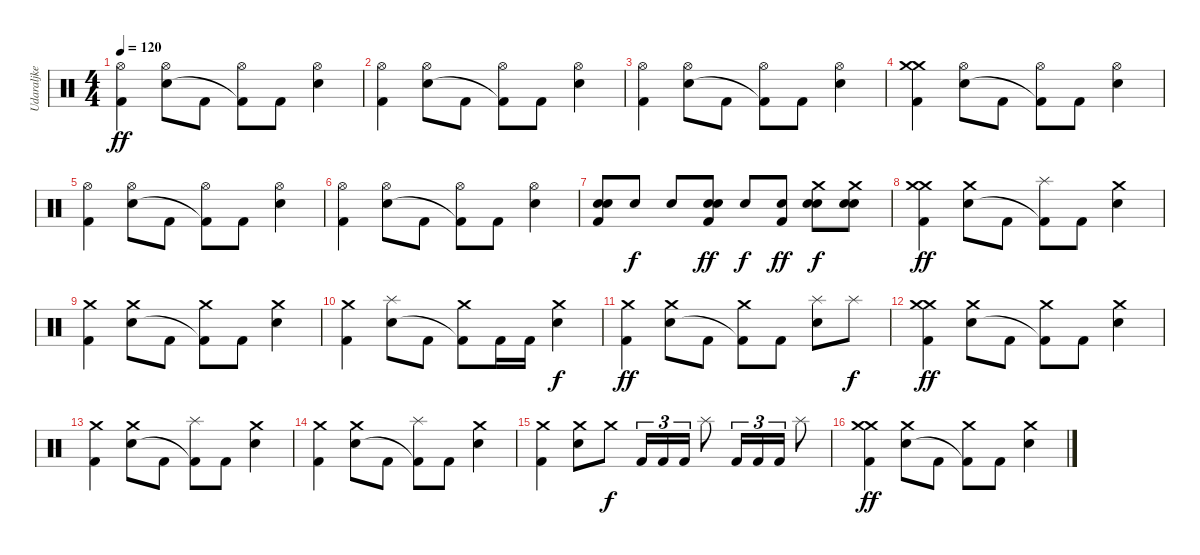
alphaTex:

\track ("Udaraljke" "Udaraljke") {instrument percussion}
\staff {score}
\articulation defaults
\ts (4 4)
\tempo 120
\clef neutral
\ks c
("Hi-Hat (open)" "Kick (hit) 2").4{dy ff} ("Hi-Hat (open)" "Electric Snare (hit)").8 "Kick (hit) 2".8 ("Hi-Hat (open)" "Kick (hit) 2"{t}).8 "Kick (hit) 2".8 ("Hi-Hat (open)" "Electric Snare (hit)").4 |
("Hi-Hat (open)" "Kick (hit) 2").4 ("Hi-Hat (open)" "Electric Snare (hit)").8 "Kick (hit) 2".8 ("Hi-Hat (open)" "Kick (hit) 2"{t}).8 "Kick (hit) 2".8 ("Hi-Hat (open)" "Electric Snare (hit)").4 |
("Hi-Hat (open)" "Kick (hit) 2").4 ("Hi-Hat (open)" "Electric Snare (hit)").8 "Kick (hit) 2".8 ("Hi-Hat (open)" "Kick (hit) 2"{t}).8 "Kick (hit) 2".8 ("Hi-Hat (open)" "Electric Snare (hit)").4 |
("Crash medium (hit)" "Crash medium (hit)" "Kick (hit) 2").4 ("Hi-Hat (open)" "Electric Snare (hit)").8 "Kick (hit) 2".8 ("Hi-Hat (open)" "Kick (hit) 2"{t}).8 "Kick (hit) 2".8 ("Hi-Hat (open)" "Electric Snare (hit)").4 |
("Hi-Hat (open)" "Kick (hit) 2").4 ("Hi-Hat (open)" "Electric Snare (hit)").8 "Kick (hit) 2".8 ("Hi-Hat (open)" "Kick (hit) 2"{t}).8 "Kick (hit) 2".8 ("Hi-Hat (open)" "Electric Snare (hit)").4 |
("Hi-Hat (open)" "Kick (hit) 2").4 ("Hi-Hat (open)" "Electric Snare (hit)").8 "Kick (hit) 2".8 ("Hi-Hat (open)" "Kick (hit) 2"{t}).8 "Kick (hit) 2".8 ("Hi-Hat (open)" "Electric Snare (hit)").4 |
("Electric Snare (hit)" "Electric Snare (hit)" "Kick (hit) 2").8 "Electric Snare (hit)".8{dy f} "Electric Snare (hit)".8 ("Electric Snare (hit)" "Electric Snare (hit)" "Kick (hit) 2").8{dy ff} "Electric Snare (hit)".8{dy f} ("Electric Snare (hit)" "Kick (hit) 2").8{dy ff} ("Electric Snare (hit)" "Electric Snare (hit)" "Crash medium (hit)").8{dy f} ("Electric Snare (hit)" "Electric Snare (hit)" "Crash medium (hit)").8 |
("Crash medium (hit)" "Crash medium (hit)" "Kick (hit) 2").4{dy ff} ("Crash medium (hit)" "Electric Snare (hit)").8 "Kick (hit) 2".8 ("Splash (hit)" "Kick (hit) 2"{t}).8 "Kick (hit) 2".8 ("Crash medium (hit)" "Electric Snare (hit)").4 |
("Crash medium (hit)" "Kick (hit) 2").4 ("Crash medium (hit)" "Electric Snare (hit)").8 "Kick (hit) 2".8 ("Crash medium (hit)" "Kick (hit) 2"{t}).8 "Kick (hit) 2".8 ("Crash medium (hit)" "Electric Snare (hit)").4 |
("Crash medium (hit)" "Kick (hit) 2").4 ("Splash (hit)" "Electric Snare (hit)").8 "Kick (hit) 2".8 ("Crash medium (hit)" "Kick (hit) 2"{t}).8 "Kick (hit) 2".16 "Kick (hit) 2".16 ("Crash medium (hit)" "Electric Snare (hit)").4{dy f} |
("Crash medium (hit)" "Kick (hit) 2").4{dy ff} ("Crash medium (hit)" "Electric Snare (hit)").8 "Kick (hit) 2".8 ("Crash medium (hit)" "Kick (hit) 2"{t}).8 "Kick (hit) 2".8 ("Splash (hit)" "Electric Snare (hit)").8 "Splash (hit)".8{dy f} |
("Crash medium (hit)" "Crash medium (hit)" "Kick (hit) 2").4{dy ff} ("Crash medium (hit)" "Electric Snare (hit)").8 "Kick (hit) 2".8 ("Crash medium (hit)" "Kick (hit) 2"{t}).8 "Kick (hit) 2".8 ("Crash medium (hit)" "Electric Snare (hit)").4 |
("Crash medium (hit)" "Kick (hit) 2").4 ("Crash medium (hit)" "Electric Snare (hit)").8 "Kick (hit) 2".8 ("Splash (hit)" "Kick (hit) 2"{t}).8 "Kick (hit) 2".8 ("Crash medium (hit)" "Electric Snare (hit)").4 |
("Crash medium (hit)" "Kick (hit) 2").4 ("Crash medium (hit)" "Electric Snare (hit)").8 "Kick (hit) 2".8 ("Splash (hit)" "Kick (hit) 2"{t}).8 "Kick (hit) 2".8 ("Crash medium (hit)" "Electric Snare (hit)").4 |
("Crash medium (hit)" "Kick (hit) 2").4 ("Crash medium (hit)" "Electric Snare (hit)").8 "Crash medium (hit)".8{dy f} "Kick (hit) 2".16{tu (3 2)} "Kick (hit) 2".16{tu (3 2)} "Kick (hit) 2".16{tu (3 2)} "Splash (hit)".8 "Kick (hit) 2".16{tu (3 2)} "Kick (hit) 2".16{tu (3 2)} "Kick (hit) 2".16{tu (3 2)} "Splash (hit)".8 |
("Crash medium (hit)" "Crash medium (hit)" "Kick (hit) 2").4{dy ff} ("Crash medium (hit)" "Electric Snare (hit)").8 "Kick (hit) 2".8 ("Crash medium (hit)" "Kick (hit) 2"{t}).8 "Kick (hit) 2".8 ("Crash medium (hit)" "Electric Snare (hit)").4
